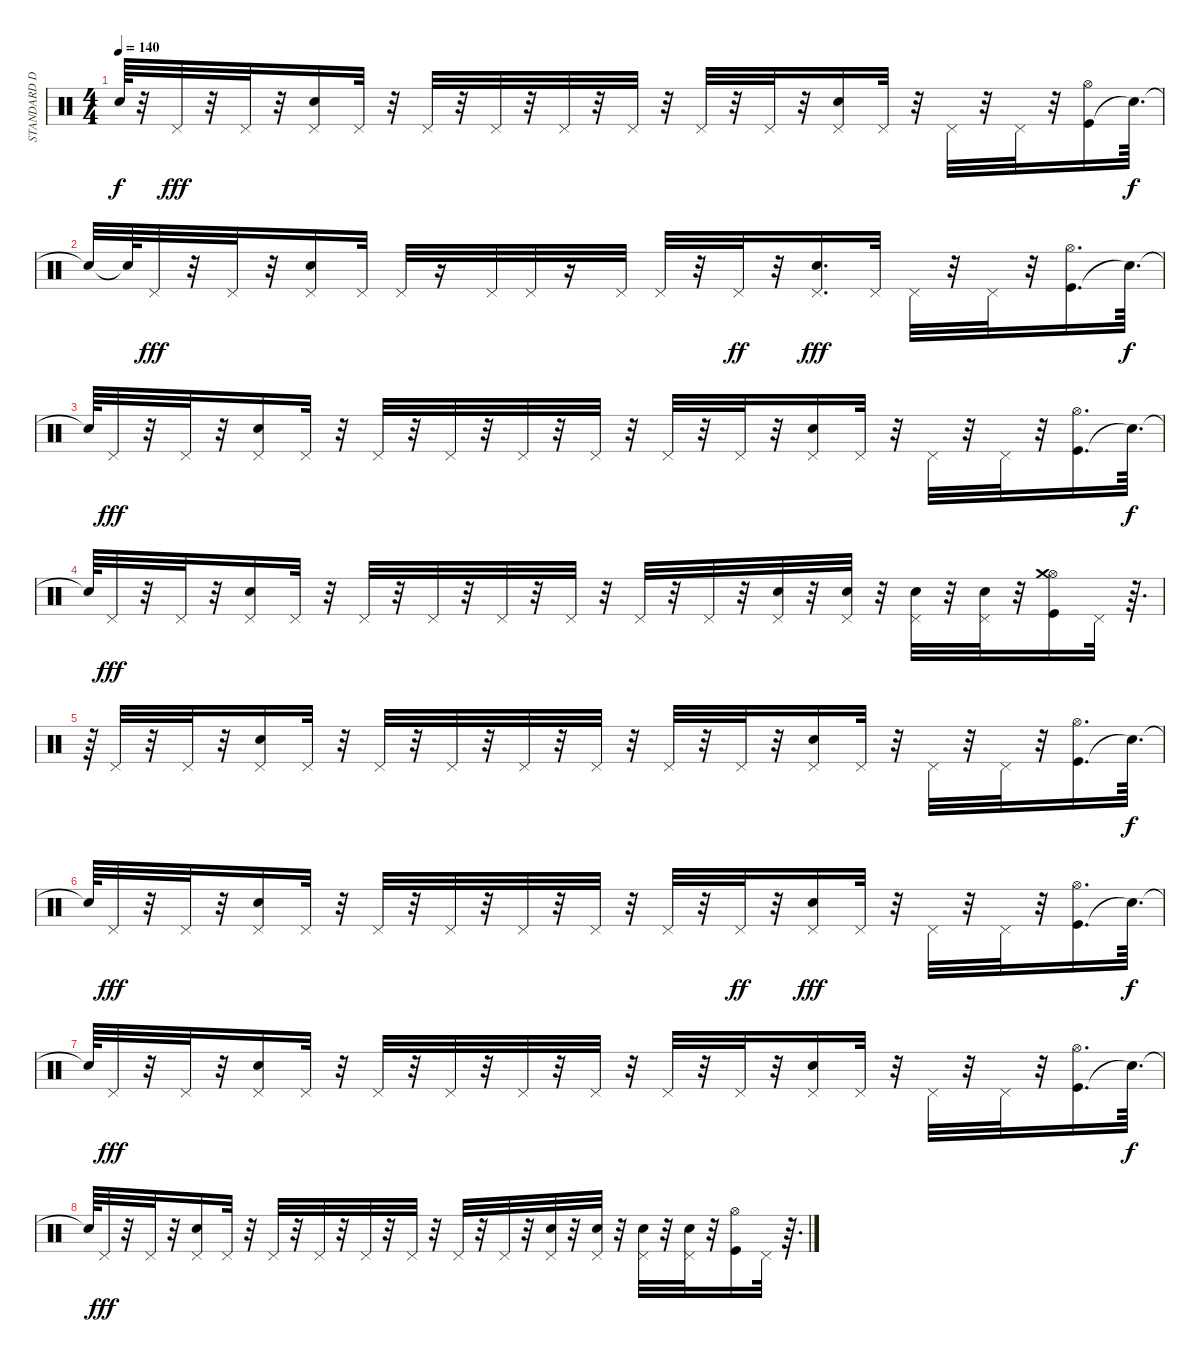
\track ("STANDARD DRUMS" "STANDARD D") {instrument percussion}
\staff {score}
\articulation defaults
\ts (4 4)
\tempo 140
\clef neutral
\ks c "Snare (hit)"{t}.64{dy f}
r.32 "Pedal Hi-Hat (hit)".32{dy fff} r.32 "Pedal Hi-Hat (hit)".32 r.32 ("Snare (hit) 2" "Pedal Hi-Hat (hit)").16 "Pedal Hi-Hat (hit)".32 r.32 "Pedal Hi-Hat (hit)".32 r.32 "Pedal Hi-Hat (hit)".32 r.32 "Pedal Hi-Hat (hit)".32 r.32 "Pedal Hi-Hat (hit)".32 r.32 "Pedal Hi-Hat (hit)".32 r.32 "Pedal Hi-Hat (hit)".32 r.32 ("Snare (hit) 2" "Pedal Hi-Hat (hit)").16 "Pedal Hi-Hat (hit)".32 r.32 "Pedal Hi-Hat (hit)".32 r.32 "Pedal Hi-Hat (hit)".32 r.32 ("Kick (hit)" "Hi-Hat (open)").16 "Snare (hit)"{t}.64{d dy f} |
"Snare (hit)"{t}.32 "Snare (hit)"{t}.64 "Pedal Hi-Hat (hit)".32{dy fff} r.32 "Pedal Hi-Hat (hit)".32 r.32 ("Snare (hit) 2" "Pedal Hi-Hat (hit)").16 "Pedal Hi-Hat (hit)".32 "Pedal Hi-Hat (hit)".32 r.16 "Pedal Hi-Hat (hit)".32 "Pedal Hi-Hat (hit)".32 r.16 "Pedal Hi-Hat (hit)".32 "Pedal Hi-Hat (hit)".32 r.32 "Pedal Hi-Hat (hit)".32{dy ff} r.32 ("Snare (hit) 2" "Pedal Hi-Hat (hit)").16{d dy fff} "Pedal Hi-Hat (hit)".32 "Pedal Hi-Hat (hit)".32 r.32 "Pedal Hi-Hat (hit)".32 r.32 ("Kick (hit)" "Hi-Hat (open)").16{d} "Snare (hit)"{t}.64{d dy f} |
"Snare (hit)"{t}.64 "Pedal Hi-Hat (hit)".32{dy fff} r.32 "Pedal Hi-Hat (hit)".32 r.32 ("Snare (hit) 2" "Pedal Hi-Hat (hit)").16 "Pedal Hi-Hat (hit)".32 r.32 "Pedal Hi-Hat (hit)".32 r.32 "Pedal Hi-Hat (hit)".32 r.32 "Pedal Hi-Hat (hit)".32 r.32 "Pedal Hi-Hat (hit)".32 r.32 "Pedal Hi-Hat (hit)".32 r.32 "Pedal Hi-Hat (hit)".32 r.32 ("Snare (hit) 2" "Pedal Hi-Hat (hit)").16 "Pedal Hi-Hat (hit)".32 r.32 "Pedal Hi-Hat (hit)".32 r.32 "Pedal Hi-Hat (hit)".32 r.32 ("Kick (hit)" "Hi-Hat (open)").16{d} "Snare (hit)"{t}.64{d dy f} |
"Snare (hit)"{t}.64 "Pedal Hi-Hat (hit)".32{dy fff} r.32 "Pedal Hi-Hat (hit)".32 r.32 ("Snare (hit) 2" "Pedal Hi-Hat (hit)").16 "Pedal Hi-Hat (hit)".32 r.32 "Pedal Hi-Hat (hit)".32 r.32 "Pedal Hi-Hat (hit)".32 r.32 "Pedal Hi-Hat (hit)".32 r.32 "Pedal Hi-Hat (hit)".32 r.32 "Pedal Hi-Hat (hit)".32 r.32 "Pedal Hi-Hat (hit)".32 r.32 ("Snare (hit) 2" "Pedal Hi-Hat (hit)").32 r.32 ("Snare (hit) 2" "Pedal Hi-Hat (hit)").32 r.32 ("Snare (hit) 2" "Pedal Hi-Hat (hit)").32 r.32 ("Snare (hit) 2" "Pedal Hi-Hat (hit)").32 r.32 ("Kick (hit)" "Hi-Hat (open)" "Crash medium (hit)").16 "Pedal Hi-Hat (hit)".32 r.64{d} |
r.64 "Pedal Hi-Hat (hit)".32 r.32 "Pedal Hi-Hat (hit)".32 r.32 ("Snare (hit) 2" "Pedal Hi-Hat (hit)").16 "Pedal Hi-Hat (hit)".32 r.32 "Pedal Hi-Hat (hit)".32 r.32 "Pedal Hi-Hat (hit)".32 r.32 "Pedal Hi-Hat (hit)".32 r.32 "Pedal Hi-Hat (hit)".32 r.32 "Pedal Hi-Hat (hit)".32 r.32 "Pedal Hi-Hat (hit)".32 r.32 ("Snare (hit) 2" "Pedal Hi-Hat (hit)").16 "Pedal Hi-Hat (hit)".32 r.32 "Pedal Hi-Hat (hit)".32 r.32 "Pedal Hi-Hat (hit)".32 r.32 ("Kick (hit)" "Hi-Hat (open)").16{d} "Snare (hit)"{t}.64{d dy f} |
"Snare (hit)"{t}.64 "Pedal Hi-Hat (hit)".32{dy fff} r.32 "Pedal Hi-Hat (hit)".32 r.32 ("Snare (hit) 2" "Pedal Hi-Hat (hit)").16 "Pedal Hi-Hat (hit)".32 r.32 "Pedal Hi-Hat (hit)".32 r.32 "Pedal Hi-Hat (hit)".32 r.32 "Pedal Hi-Hat (hit)".32 r.32 "Pedal Hi-Hat (hit)".32 r.32 "Pedal Hi-Hat (hit)".32 r.32 "Pedal Hi-Hat (hit)".32{dy ff} r.32 ("Snare (hit) 2" "Pedal Hi-Hat (hit)").16{dy fff} "Pedal Hi-Hat (hit)".32 r.32 "Pedal Hi-Hat (hit)".32 r.32 "Pedal Hi-Hat (hit)".32 r.32 ("Kick (hit)" "Hi-Hat (open)").16{d} "Snare (hit)"{t}.64{d dy f} |
"Snare (hit)"{t}.64 "Pedal Hi-Hat (hit)".32{dy fff} r.32 "Pedal Hi-Hat (hit)".32 r.32 ("Snare (hit) 2" "Pedal Hi-Hat (hit)").16 "Pedal Hi-Hat (hit)".32 r.32 "Pedal Hi-Hat (hit)".32 r.32 "Pedal Hi-Hat (hit)".32 r.32 "Pedal Hi-Hat (hit)".32 r.32 "Pedal Hi-Hat (hit)".32 r.32 "Pedal Hi-Hat (hit)".32 r.32 "Pedal Hi-Hat (hit)".32 r.32 ("Snare (hit) 2" "Pedal Hi-Hat (hit)").16 "Pedal Hi-Hat (hit)".32 r.32 "Pedal Hi-Hat (hit)".32 r.32 "Pedal Hi-Hat (hit)".32 r.32 ("Kick (hit)" "Hi-Hat (open)").16{d} "Snare (hit)"{t}.64{d dy f} |
"Snare (hit)"{t}.64 "Pedal Hi-Hat (hit)".32{dy fff} r.32 "Pedal Hi-Hat (hit)".32 r.32 ("Snare (hit) 2" "Pedal Hi-Hat (hit)").16 "Pedal Hi-Hat (hit)".32 r.32 "Pedal Hi-Hat (hit)".32 r.32 "Pedal Hi-Hat (hit)".32 r.32 "Pedal Hi-Hat (hit)".32 r.32 "Pedal Hi-Hat (hit)".32 r.32 "Pedal Hi-Hat (hit)".32 r.32 "Pedal Hi-Hat (hit)".32 r.32 ("Snare (hit) 2" "Pedal Hi-Hat (hit)").32 r.32 ("Snare (hit) 2" "Pedal Hi-Hat (hit)").32 r.32 ("Snare (hit) 2" "Pedal Hi-Hat (hit)").32 r.32 ("Snare (hit) 2" "Pedal Hi-Hat (hit)").32 r.32 ("Kick (hit)" "Hi-Hat (open)").16 "Pedal Hi-Hat (hit)".32 r.64{d}
